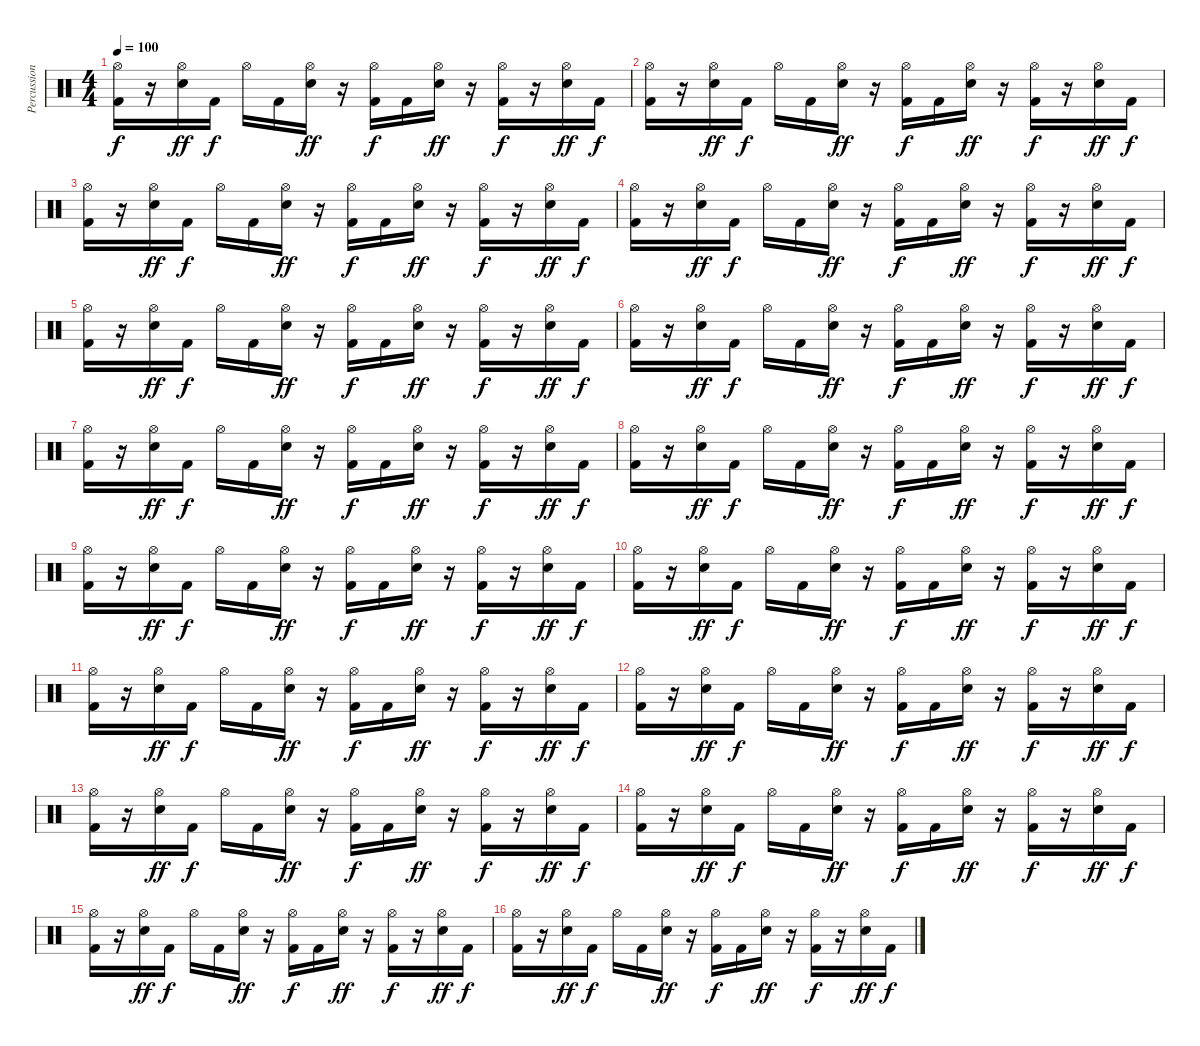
\track ("Percussion" "Percussion") {instrument percussion}
\staff {score}
\articulation defaults
\ts (4 4)
\tempo 100
\clef neutral
\ks c
("Hi-Hat (open)" "Kick (hit) 2").16{dy f} r.16 ("Hi-Hat (open)" "Electric Snare (hit)").16{dy ff} "Kick (hit) 2".16{dy f} "Hi-Hat (open)".16 "Kick (hit) 2".16 ("Hi-Hat (open)" "Electric Snare (hit)").16{dy ff} r.16 ("Hi-Hat (open)" "Kick (hit) 2").16{dy f} "Kick (hit) 2".16 ("Hi-Hat (open)" "Electric Snare (hit)").16{dy ff} r.16 ("Hi-Hat (open)" "Kick (hit) 2").16{dy f} r.16 ("Hi-Hat (open)" "Electric Snare (hit)").16{dy ff} "Kick (hit) 2".16{dy f} |
("Hi-Hat (open)" "Kick (hit) 2").16 r.16 ("Hi-Hat (open)" "Electric Snare (hit)").16{dy ff} "Kick (hit) 2".16{dy f} "Hi-Hat (open)".16 "Kick (hit) 2".16 ("Hi-Hat (open)" "Electric Snare (hit)").16{dy ff} r.16 ("Hi-Hat (open)" "Kick (hit) 2").16{dy f} "Kick (hit) 2".16 ("Hi-Hat (open)" "Electric Snare (hit)").16{dy ff} r.16 ("Hi-Hat (open)" "Kick (hit) 2").16{dy f} r.16 ("Hi-Hat (open)" "Electric Snare (hit)").16{dy ff} "Kick (hit) 2".16{dy f} |
("Hi-Hat (open)" "Kick (hit) 2").16 r.16 ("Hi-Hat (open)" "Electric Snare (hit)").16{dy ff} "Kick (hit) 2".16{dy f} "Hi-Hat (open)".16 "Kick (hit) 2".16 ("Hi-Hat (open)" "Electric Snare (hit)").16{dy ff} r.16 ("Hi-Hat (open)" "Kick (hit) 2").16{dy f} "Kick (hit) 2".16 ("Hi-Hat (open)" "Electric Snare (hit)").16{dy ff} r.16 ("Hi-Hat (open)" "Kick (hit) 2").16{dy f} r.16 ("Hi-Hat (open)" "Electric Snare (hit)").16{dy ff} "Kick (hit) 2".16{dy f} |
("Hi-Hat (open)" "Kick (hit) 2").16 r.16 ("Hi-Hat (open)" "Electric Snare (hit)").16{dy ff} "Kick (hit) 2".16{dy f} "Hi-Hat (open)".16 "Kick (hit) 2".16 ("Hi-Hat (open)" "Electric Snare (hit)").16{dy ff} r.16 ("Hi-Hat (open)" "Kick (hit) 2").16{dy f} "Kick (hit) 2".16 ("Hi-Hat (open)" "Electric Snare (hit)").16{dy ff} r.16 ("Hi-Hat (open)" "Kick (hit) 2").16{dy f} r.16 ("Hi-Hat (open)" "Electric Snare (hit)").16{dy ff} "Kick (hit) 2".16{dy f} |
("Hi-Hat (open)" "Kick (hit) 2").16 r.16 ("Hi-Hat (open)" "Electric Snare (hit)").16{dy ff} "Kick (hit) 2".16{dy f} "Hi-Hat (open)".16 "Kick (hit) 2".16 ("Hi-Hat (open)" "Electric Snare (hit)").16{dy ff} r.16 ("Hi-Hat (open)" "Kick (hit) 2").16{dy f} "Kick (hit) 2".16 ("Hi-Hat (open)" "Electric Snare (hit)").16{dy ff} r.16 ("Hi-Hat (open)" "Kick (hit) 2").16{dy f} r.16 ("Hi-Hat (open)" "Electric Snare (hit)").16{dy ff} "Kick (hit) 2".16{dy f} |
("Hi-Hat (open)" "Kick (hit) 2").16 r.16 ("Hi-Hat (open)" "Electric Snare (hit)").16{dy ff} "Kick (hit) 2".16{dy f} "Hi-Hat (open)".16 "Kick (hit) 2".16 ("Hi-Hat (open)" "Electric Snare (hit)").16{dy ff} r.16 ("Hi-Hat (open)" "Kick (hit) 2").16{dy f} "Kick (hit) 2".16 ("Hi-Hat (open)" "Electric Snare (hit)").16{dy ff} r.16 ("Hi-Hat (open)" "Kick (hit) 2").16{dy f} r.16 ("Hi-Hat (open)" "Electric Snare (hit)").16{dy ff} "Kick (hit) 2".16{dy f} |
("Hi-Hat (open)" "Kick (hit) 2").16 r.16 ("Hi-Hat (open)" "Electric Snare (hit)").16{dy ff} "Kick (hit) 2".16{dy f} "Hi-Hat (open)".16 "Kick (hit) 2".16 ("Hi-Hat (open)" "Electric Snare (hit)").16{dy ff} r.16 ("Hi-Hat (open)" "Kick (hit) 2").16{dy f} "Kick (hit) 2".16 ("Hi-Hat (open)" "Electric Snare (hit)").16{dy ff} r.16 ("Hi-Hat (open)" "Kick (hit) 2").16{dy f} r.16 ("Hi-Hat (open)" "Electric Snare (hit)").16{dy ff} "Kick (hit) 2".16{dy f} |
("Hi-Hat (open)" "Kick (hit) 2").16 r.16 ("Hi-Hat (open)" "Electric Snare (hit)").16{dy ff} "Kick (hit) 2".16{dy f} "Hi-Hat (open)".16 "Kick (hit) 2".16 ("Hi-Hat (open)" "Electric Snare (hit)").16{dy ff} r.16 ("Hi-Hat (open)" "Kick (hit) 2").16{dy f} "Kick (hit) 2".16 ("Hi-Hat (open)" "Electric Snare (hit)").16{dy ff} r.16 ("Hi-Hat (open)" "Kick (hit) 2").16{dy f} r.16 ("Hi-Hat (open)" "Electric Snare (hit)").16{dy ff} "Kick (hit) 2".16{dy f} |
("Hi-Hat (open)" "Kick (hit) 2").16 r.16 ("Hi-Hat (open)" "Electric Snare (hit)").16{dy ff} "Kick (hit) 2".16{dy f} "Hi-Hat (open)".16 "Kick (hit) 2".16 ("Hi-Hat (open)" "Electric Snare (hit)").16{dy ff} r.16 ("Hi-Hat (open)" "Kick (hit) 2").16{dy f} "Kick (hit) 2".16 ("Hi-Hat (open)" "Electric Snare (hit)").16{dy ff} r.16 ("Hi-Hat (open)" "Kick (hit) 2").16{dy f} r.16 ("Hi-Hat (open)" "Electric Snare (hit)").16{dy ff} "Kick (hit) 2".16{dy f} |
("Hi-Hat (open)" "Kick (hit) 2").16 r.16 ("Hi-Hat (open)" "Electric Snare (hit)").16{dy ff} "Kick (hit) 2".16{dy f} "Hi-Hat (open)".16 "Kick (hit) 2".16 ("Hi-Hat (open)" "Electric Snare (hit)").16{dy ff} r.16 ("Hi-Hat (open)" "Kick (hit) 2").16{dy f} "Kick (hit) 2".16 ("Hi-Hat (open)" "Electric Snare (hit)").16{dy ff} r.16 ("Hi-Hat (open)" "Kick (hit) 2").16{dy f} r.16 ("Hi-Hat (open)" "Electric Snare (hit)").16{dy ff} "Kick (hit) 2".16{dy f} |
("Hi-Hat (open)" "Kick (hit) 2").16 r.16 ("Hi-Hat (open)" "Electric Snare (hit)").16{dy ff} "Kick (hit) 2".16{dy f} "Hi-Hat (open)".16 "Kick (hit) 2".16 ("Hi-Hat (open)" "Electric Snare (hit)").16{dy ff} r.16 ("Hi-Hat (open)" "Kick (hit) 2").16{dy f} "Kick (hit) 2".16 ("Hi-Hat (open)" "Electric Snare (hit)").16{dy ff} r.16 ("Hi-Hat (open)" "Kick (hit) 2").16{dy f} r.16 ("Hi-Hat (open)" "Electric Snare (hit)").16{dy ff} "Kick (hit) 2".16{dy f} |
("Hi-Hat (open)" "Kick (hit) 2").16 r.16 ("Hi-Hat (open)" "Electric Snare (hit)").16{dy ff} "Kick (hit) 2".16{dy f} "Hi-Hat (open)".16 "Kick (hit) 2".16 ("Hi-Hat (open)" "Electric Snare (hit)").16{dy ff} r.16 ("Hi-Hat (open)" "Kick (hit) 2").16{dy f} "Kick (hit) 2".16 ("Hi-Hat (open)" "Electric Snare (hit)").16{dy ff} r.16 ("Hi-Hat (open)" "Kick (hit) 2").16{dy f} r.16 ("Hi-Hat (open)" "Electric Snare (hit)").16{dy ff} "Kick (hit) 2".16{dy f} |
("Hi-Hat (open)" "Kick (hit) 2").16 r.16 ("Hi-Hat (open)" "Electric Snare (hit)").16{dy ff} "Kick (hit) 2".16{dy f} "Hi-Hat (open)".16 "Kick (hit) 2".16 ("Hi-Hat (open)" "Electric Snare (hit)").16{dy ff} r.16 ("Hi-Hat (open)" "Kick (hit) 2").16{dy f} "Kick (hit) 2".16 ("Hi-Hat (open)" "Electric Snare (hit)").16{dy ff} r.16 ("Hi-Hat (open)" "Kick (hit) 2").16{dy f} r.16 ("Hi-Hat (open)" "Electric Snare (hit)").16{dy ff} "Kick (hit) 2".16{dy f} |
("Hi-Hat (open)" "Kick (hit) 2").16 r.16 ("Hi-Hat (open)" "Electric Snare (hit)").16{dy ff} "Kick (hit) 2".16{dy f} "Hi-Hat (open)".16 "Kick (hit) 2".16 ("Hi-Hat (open)" "Electric Snare (hit)").16{dy ff} r.16 ("Hi-Hat (open)" "Kick (hit) 2").16{dy f} "Kick (hit) 2".16 ("Hi-Hat (open)" "Electric Snare (hit)").16{dy ff} r.16 ("Hi-Hat (open)" "Kick (hit) 2").16{dy f} r.16 ("Hi-Hat (open)" "Electric Snare (hit)").16{dy ff} "Kick (hit) 2".16{dy f} |
("Hi-Hat (open)" "Kick (hit) 2").16 r.16 ("Hi-Hat (open)" "Electric Snare (hit)").16{dy ff} "Kick (hit) 2".16{dy f} "Hi-Hat (open)".16 "Kick (hit) 2".16 ("Hi-Hat (open)" "Electric Snare (hit)").16{dy ff} r.16 ("Hi-Hat (open)" "Kick (hit) 2").16{dy f} "Kick (hit) 2".16 ("Hi-Hat (open)" "Electric Snare (hit)").16{dy ff} r.16 ("Hi-Hat (open)" "Kick (hit) 2").16{dy f} r.16 ("Hi-Hat (open)" "Electric Snare (hit)").16{dy ff} "Kick (hit) 2".16{dy f} |
("Hi-Hat (open)" "Kick (hit) 2").16 r.16 ("Hi-Hat (open)" "Electric Snare (hit)").16{dy ff} "Kick (hit) 2".16{dy f} "Hi-Hat (open)".16 "Kick (hit) 2".16 ("Hi-Hat (open)" "Electric Snare (hit)").16{dy ff} r.16 ("Hi-Hat (open)" "Kick (hit) 2").16{dy f} "Kick (hit) 2".16 ("Hi-Hat (open)" "Electric Snare (hit)").16{dy ff} r.16 ("Hi-Hat (open)" "Kick (hit) 2").16{dy f} r.16 ("Hi-Hat (open)" "Electric Snare (hit)").16{dy ff} "Kick (hit) 2".16{dy f}
